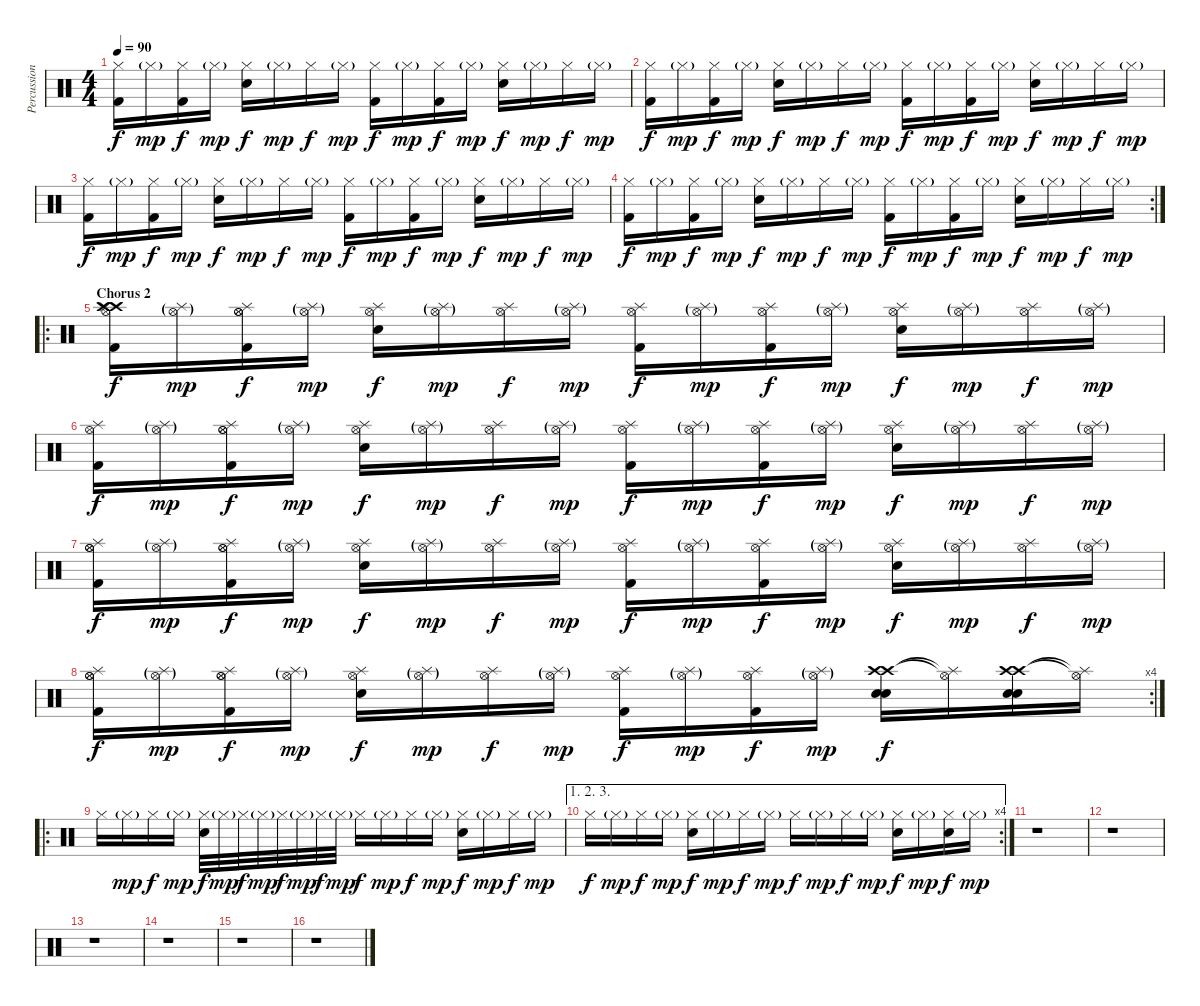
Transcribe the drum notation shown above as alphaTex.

\track ("Percussions" "Percussion") {instrument percussion}
\staff {score}
\articulation defaults
\ts (4 4)
\tempo 90
\clef neutral
\ks c
("Hi-Hat (closed)" "Kick (hit) 2").16{dy f} "Hi-Hat (closed)"{g}.16{dy mp} ("Hi-Hat (closed)" "Kick (hit) 2").16{dy f} "Hi-Hat (closed)"{g}.16{dy mp} ("Hi-Hat (closed)" "Electric Snare (hit)").16{dy f} "Hi-Hat (closed)"{g}.16{dy mp} "Hi-Hat (closed)".16{dy f} "Hi-Hat (closed)"{g}.16{dy mp} ("Hi-Hat (closed)" "Kick (hit) 2").16{dy f} "Hi-Hat (closed)"{g}.16{dy mp} ("Hi-Hat (closed)" "Kick (hit) 2").16{dy f} "Hi-Hat (closed)"{g}.16{dy mp} ("Hi-Hat (closed)" "Electric Snare (hit)").16{dy f} "Hi-Hat (closed)"{g}.16{dy mp} "Hi-Hat (closed)".16{dy f} "Hi-Hat (closed)"{g}.16{dy mp} |
("Hi-Hat (closed)" "Kick (hit) 2").16{dy f} "Hi-Hat (closed)"{g}.16{dy mp} ("Hi-Hat (closed)" "Kick (hit) 2").16{dy f} "Hi-Hat (closed)"{g}.16{dy mp} ("Hi-Hat (closed)" "Electric Snare (hit)").16{dy f} "Hi-Hat (closed)"{g}.16{dy mp} "Hi-Hat (closed)".16{dy f} "Hi-Hat (closed)"{g}.16{dy mp} ("Hi-Hat (closed)" "Kick (hit) 2").16{dy f} "Hi-Hat (closed)"{g}.16{dy mp} ("Hi-Hat (closed)" "Kick (hit) 2").16{dy f} "Hi-Hat (closed)"{g}.16{dy mp} ("Hi-Hat (closed)" "Electric Snare (hit)").16{dy f} "Hi-Hat (closed)"{g}.16{dy mp} "Hi-Hat (closed)".16{dy f} "Hi-Hat (closed)"{g}.16{dy mp} |
("Hi-Hat (closed)" "Kick (hit) 2").16{dy f} "Hi-Hat (closed)"{g}.16{dy mp} ("Hi-Hat (closed)" "Kick (hit) 2").16{dy f} "Hi-Hat (closed)"{g}.16{dy mp} ("Hi-Hat (closed)" "Electric Snare (hit)").16{dy f} "Hi-Hat (closed)"{g}.16{dy mp} "Hi-Hat (closed)".16{dy f} "Hi-Hat (closed)"{g}.16{dy mp} ("Hi-Hat (closed)" "Kick (hit) 2").16{dy f} "Hi-Hat (closed)"{g}.16{dy mp} ("Hi-Hat (closed)" "Kick (hit) 2").16{dy f} "Hi-Hat (closed)"{g}.16{dy mp} ("Hi-Hat (closed)" "Electric Snare (hit)").16{dy f} "Hi-Hat (closed)"{g}.16{dy mp} "Hi-Hat (closed)".16{dy f} "Hi-Hat (closed)"{g}.16{dy mp} |
\rc 2
("Hi-Hat (closed)" "Kick (hit) 2").16{dy f} "Hi-Hat (closed)"{g}.16{dy mp} ("Hi-Hat (closed)" "Kick (hit) 2").16{dy f} "Hi-Hat (closed)"{g}.16{dy mp} ("Hi-Hat (closed)" "Electric Snare (hit)").16{dy f} "Hi-Hat (closed)"{g}.16{dy mp} "Hi-Hat (closed)".16{dy f} "Hi-Hat (closed)"{g}.16{dy mp} ("Hi-Hat (closed)" "Kick (hit) 2").16{dy f} "Hi-Hat (closed)"{g}.16{dy mp} ("Hi-Hat (closed)" "Kick (hit) 2").16{dy f} "Hi-Hat (closed)"{g}.16{dy mp} ("Hi-Hat (closed)" "Electric Snare (hit)").16{dy f} "Hi-Hat (closed)"{g}.16{dy mp} "Hi-Hat (closed)".16{dy f} "Hi-Hat (closed)"{g}.16{dy mp} |
\ro
\section ("" "Chorus 2")
("Crash high (hit)" "Splash (hit)" "Hi-Hat (open)" "Crash high (hit)" "Kick (hit) 2").16{dy f} ("Splash (hit)"{g} "Hi-Hat (open)"{g}).16{dy mp} ("Hi-Hat (open)" "Splash (hit)" "Hi-Hat (open)" "Kick (hit) 2").16{dy f} ("Splash (hit)"{g} "Hi-Hat (open)"{g}).16{dy mp} ("Splash (hit)" "Hi-Hat (open)" "Electric Snare (hit)").16{dy f} ("Splash (hit)"{g} "Hi-Hat (open)"{g}).16{dy mp} ("Splash (hit)" "Hi-Hat (open)").16{dy f} ("Splash (hit)"{g} "Hi-Hat (open)"{g}).16{dy mp} ("Splash (hit)" "Hi-Hat (open)" "Kick (hit) 2").16{dy f} ("Splash (hit)"{g} "Hi-Hat (open)"{g}).16{dy mp} ("Splash (hit)" "Hi-Hat (open)" "Kick (hit) 2").16{dy f} ("Splash (hit)"{g} "Hi-Hat (open)"{g}).16{dy mp} ("Splash (hit)" "Hi-Hat (open)" "Electric Snare (hit)").16{dy f} ("Splash (hit)"{g} "Hi-Hat (open)"{g}).16{dy mp} ("Splash (hit)" "Hi-Hat (open)").16{dy f} ("Splash (hit)"{g} "Hi-Hat (open)"{g}).16{dy mp} |
("Splash (hit)" "Hi-Hat (open)" "Kick (hit) 2").16{dy f} ("Splash (hit)"{g} "Hi-Hat (open)"{g}).16{dy mp} ("Hi-Hat (open)" "Splash (hit)" "Hi-Hat (open)" "Kick (hit) 2").16{dy f} ("Splash (hit)"{g} "Hi-Hat (open)"{g}).16{dy mp} ("Splash (hit)" "Hi-Hat (open)" "Electric Snare (hit)").16{dy f} ("Splash (hit)"{g} "Hi-Hat (open)"{g}).16{dy mp} ("Splash (hit)" "Hi-Hat (open)").16{dy f} ("Splash (hit)"{g} "Hi-Hat (open)"{g}).16{dy mp} ("Splash (hit)" "Hi-Hat (open)" "Kick (hit) 2").16{dy f} ("Splash (hit)"{g} "Hi-Hat (open)"{g}).16{dy mp} ("Splash (hit)" "Hi-Hat (open)" "Kick (hit) 2").16{dy f} ("Splash (hit)"{g} "Hi-Hat (open)"{g}).16{dy mp} ("Splash (hit)" "Hi-Hat (open)" "Electric Snare (hit)").16{dy f} ("Splash (hit)"{g} "Hi-Hat (open)"{g}).16{dy mp} ("Splash (hit)" "Hi-Hat (open)").16{dy f} ("Splash (hit)"{g} "Hi-Hat (open)"{g}).16{dy mp} |
("Hi-Hat (open)" "Splash (hit)" "Hi-Hat (open)" "Kick (hit) 2").16{dy f} ("Splash (hit)"{g} "Hi-Hat (open)"{g}).16{dy mp} ("Hi-Hat (open)" "Splash (hit)" "Hi-Hat (open)" "Kick (hit) 2").16{dy f} ("Splash (hit)"{g} "Hi-Hat (open)"{g}).16{dy mp} ("Splash (hit)" "Hi-Hat (open)" "Electric Snare (hit)").16{dy f} ("Splash (hit)"{g} "Hi-Hat (open)"{g}).16{dy mp} ("Splash (hit)" "Hi-Hat (open)").16{dy f} ("Splash (hit)"{g} "Hi-Hat (open)"{g}).16{dy mp} ("Splash (hit)" "Hi-Hat (open)" "Kick (hit) 2").16{dy f} ("Splash (hit)"{g} "Hi-Hat (open)"{g}).16{dy mp} ("Splash (hit)" "Hi-Hat (open)" "Kick (hit) 2").16{dy f} ("Splash (hit)"{g} "Hi-Hat (open)"{g}).16{dy mp} ("Splash (hit)" "Hi-Hat (open)" "Electric Snare (hit)").16{dy f} ("Splash (hit)"{g} "Hi-Hat (open)"{g}).16{dy mp} ("Splash (hit)" "Hi-Hat (open)").16{dy f} ("Splash (hit)"{g} "Hi-Hat (open)"{g}).16{dy mp} |
\rc 4
("Hi-Hat (open)" "Splash (hit)" "Hi-Hat (open)" "Kick (hit) 2").16{dy f} ("Splash (hit)"{g} "Hi-Hat (open)"{g}).16{dy mp} ("Hi-Hat (open)" "Splash (hit)" "Hi-Hat (open)" "Kick (hit) 2").16{dy f} ("Splash (hit)"{g} "Hi-Hat (open)"{g}).16{dy mp} ("Splash (hit)" "Hi-Hat (open)" "Electric Snare (hit)").16{dy f} ("Splash (hit)"{g} "Hi-Hat (open)"{g}).16{dy mp} ("Splash (hit)" "Hi-Hat (open)").16{dy f} ("Splash (hit)"{g} "Hi-Hat (open)"{g}).16{dy mp} ("Splash (hit)" "Hi-Hat (open)" "Kick (hit) 2").16{dy f} ("Splash (hit)"{g} "Hi-Hat (open)"{g}).16{dy mp} ("Splash (hit)" "Hi-Hat (open)" "Kick (hit) 2").16{dy f} ("Splash (hit)"{g} "Hi-Hat (open)"{g}).16{dy mp} ("Crash high (hit)" "Crash high (hit)" "Electric Snare (hit)" "Electric Snare (hit)").16{dy f} ("Splash (hit)"{t} "Hi-Hat (open)"{t}).16 ("Crash high (hit)" "Crash high (hit)" "Electric Snare (hit)" "Electric Snare (hit)").16 ("Splash (hit)"{t} "Hi-Hat (open)"{t}).16 |
\ro "Hi-Hat (closed)".16 "Hi-Hat (closed)"{g}.16{dy mp} "Hi-Hat (closed)".16{dy f} "Hi-Hat (closed)"{g}.16{dy mp}
("Hi-Hat (closed)" "Electric Snare (hit)").32{dy f} "Hi-Hat (closed)"{g}.32{dy mp} "Hi-Hat (closed)".32{dy f} "Hi-Hat (closed)"{g}.32{dy mp} "Hi-Hat (closed)".32{dy f} "Hi-Hat (closed)"{g}.32{dy mp} "Hi-Hat (closed)".32{dy f} "Hi-Hat (closed)"{g}.32{dy mp} "Hi-Hat (closed)".16{dy f} "Hi-Hat (closed)"{g}.16{dy mp} "Hi-Hat (closed)".16{dy f} "Hi-Hat (closed)"{g}.16{dy mp} ("Hi-Hat (closed)" "Electric Snare (hit)").16{dy f} "Hi-Hat (closed)"{g}.16{dy mp} "Hi-Hat (closed)".16{dy f} "Hi-Hat (closed)"{g}.16{dy mp} |
\ae (1 2 3)
\rc 4 "Hi-Hat (closed)".16{dy f} "Hi-Hat (closed)"{g}.16{dy mp} "Hi-Hat (closed)".16{dy f} "Hi-Hat (closed)"{g}.16{dy mp}
("Hi-Hat (closed)" "Electric Snare (hit)").16{dy f} "Hi-Hat (closed)"{g}.16{dy mp} "Hi-Hat (closed)".16{dy f} "Hi-Hat (closed)"{g}.16{dy mp} "Hi-Hat (closed)".16{dy f} "Hi-Hat (closed)"{g}.16{dy mp} "Hi-Hat (closed)".16{dy f} "Hi-Hat (closed)"{g}.16{dy mp} ("Hi-Hat (closed)" "Electric Snare (hit)").16{dy f} "Hi-Hat (closed)"{g}.16{dy mp} ("Hi-Hat (closed)" "Electric Snare (hit)").16{dy f} "Hi-Hat (closed)"{g}.16{dy mp} |
r.1 |
r.1 |
r.1 |
r.1 |
r.1 |
r.1
